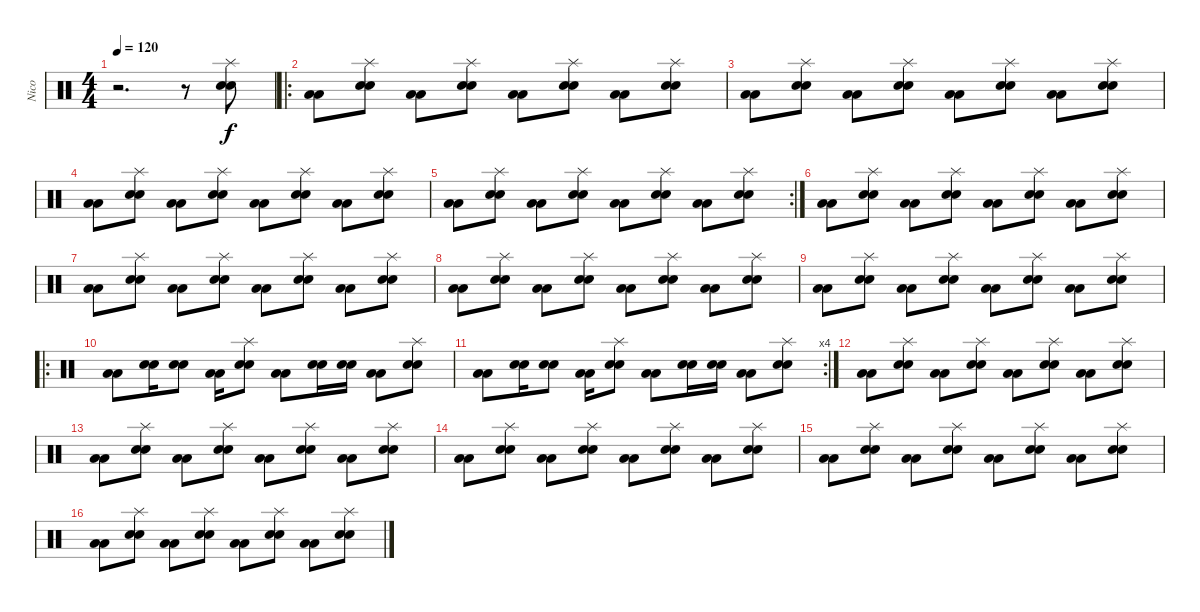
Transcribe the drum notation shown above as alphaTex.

\track ("Nico" "Nico") {instrument percussion}
\staff {score}
\articulation defaults
\ts (4 4)
\tempo 120
\clef neutral
\ks c
r.2{d dy f} r.8 ("Splash (hit)" "Snare (hit) 2" "Snare (hit) 2").8 |
\ro
("Low Floor Tom (hit)" "Low Floor Tom (hit)").8 ("Splash (hit)" "Snare (hit) 2" "Snare (hit) 2").8 ("Low Floor Tom (hit)" "Low Floor Tom (hit)").8 ("Splash (hit)" "Snare (hit) 2" "Snare (hit) 2").8 ("Low Floor Tom (hit)" "Low Floor Tom (hit)").8 ("Splash (hit)" "Snare (hit) 2" "Snare (hit) 2").8 ("Low Floor Tom (hit)" "Low Floor Tom (hit)").8 ("Splash (hit)" "Snare (hit) 2" "Snare (hit) 2").8 |
("Low Floor Tom (hit)" "Low Floor Tom (hit)").8 ("Splash (hit)" "Snare (hit) 2" "Snare (hit) 2").8 ("Low Floor Tom (hit)" "Low Floor Tom (hit)").8 ("Splash (hit)" "Snare (hit) 2" "Snare (hit) 2").8 ("Low Floor Tom (hit)" "Low Floor Tom (hit)").8 ("Splash (hit)" "Snare (hit) 2" "Snare (hit) 2").8 ("Low Floor Tom (hit)" "Low Floor Tom (hit)").8 ("Splash (hit)" "Snare (hit) 2" "Snare (hit) 2").8 |
("Low Floor Tom (hit)" "Low Floor Tom (hit)").8 ("Splash (hit)" "Snare (hit) 2" "Snare (hit) 2").8 ("Low Floor Tom (hit)" "Low Floor Tom (hit)").8 ("Splash (hit)" "Snare (hit) 2" "Snare (hit) 2").8 ("Low Floor Tom (hit)" "Low Floor Tom (hit)").8 ("Splash (hit)" "Snare (hit) 2" "Snare (hit) 2").8 ("Low Floor Tom (hit)" "Low Floor Tom (hit)").8 ("Splash (hit)" "Snare (hit) 2" "Snare (hit) 2").8 |
\rc 2
("Low Floor Tom (hit)" "Low Floor Tom (hit)").8 ("Splash (hit)" "Snare (hit) 2" "Snare (hit) 2").8 ("Low Floor Tom (hit)" "Low Floor Tom (hit)").8 ("Splash (hit)" "Snare (hit) 2" "Snare (hit) 2").8 ("Low Floor Tom (hit)" "Low Floor Tom (hit)").8 ("Splash (hit)" "Snare (hit) 2" "Snare (hit) 2").8 ("Low Floor Tom (hit)" "Low Floor Tom (hit)").8 ("Splash (hit)" "Snare (hit) 2" "Snare (hit) 2").8 |
("Low Floor Tom (hit)" "Low Floor Tom (hit)").8 ("Splash (hit)" "Snare (hit) 2" "Snare (hit) 2").8 ("Low Floor Tom (hit)" "Low Floor Tom (hit)").8 ("Splash (hit)" "Snare (hit) 2" "Snare (hit) 2").8 ("Low Floor Tom (hit)" "Low Floor Tom (hit)").8 ("Splash (hit)" "Snare (hit) 2" "Snare (hit) 2").8 ("Low Floor Tom (hit)" "Low Floor Tom (hit)").8 ("Splash (hit)" "Snare (hit) 2" "Snare (hit) 2").8 |
("Low Floor Tom (hit)" "Low Floor Tom (hit)").8 ("Splash (hit)" "Snare (hit) 2" "Snare (hit) 2").8 ("Low Floor Tom (hit)" "Low Floor Tom (hit)").8 ("Splash (hit)" "Snare (hit) 2" "Snare (hit) 2").8 ("Low Floor Tom (hit)" "Low Floor Tom (hit)").8 ("Splash (hit)" "Snare (hit) 2" "Snare (hit) 2").8 ("Low Floor Tom (hit)" "Low Floor Tom (hit)").8 ("Splash (hit)" "Snare (hit) 2" "Snare (hit) 2").8 |
("Low Floor Tom (hit)" "Low Floor Tom (hit)").8 ("Splash (hit)" "Snare (hit) 2" "Snare (hit) 2").8 ("Low Floor Tom (hit)" "Low Floor Tom (hit)").8 ("Splash (hit)" "Snare (hit) 2" "Snare (hit) 2").8 ("Low Floor Tom (hit)" "Low Floor Tom (hit)").8 ("Splash (hit)" "Snare (hit) 2" "Snare (hit) 2").8 ("Low Floor Tom (hit)" "Low Floor Tom (hit)").8 ("Splash (hit)" "Snare (hit) 2" "Snare (hit) 2").8 |
("Low Floor Tom (hit)" "Low Floor Tom (hit)").8 ("Splash (hit)" "Snare (hit) 2" "Snare (hit) 2").8 ("Low Floor Tom (hit)" "Low Floor Tom (hit)").8 ("Splash (hit)" "Snare (hit) 2" "Snare (hit) 2").8 ("Low Floor Tom (hit)" "Low Floor Tom (hit)").8 ("Splash (hit)" "Snare (hit) 2" "Snare (hit) 2").8 ("Low Floor Tom (hit)" "Low Floor Tom (hit)").8 ("Splash (hit)" "Snare (hit) 2" "Snare (hit) 2").8 |
\ro
("Low Floor Tom (hit)" "Low Floor Tom (hit)").8 ("Snare (hit) 2" "Snare (hit) 2").16 ("Snare (hit) 2" "Snare (hit) 2").8 ("Low Floor Tom (hit)" "Low Floor Tom (hit)").16 ("Splash (hit)" "Snare (hit) 2" "Snare (hit) 2").8 ("Low Floor Tom (hit)" "Low Floor Tom (hit)").8 ("Snare (hit) 2" "Snare (hit) 2").16 ("Snare (hit) 2" "Snare (hit) 2").16 ("Low Floor Tom (hit)" "Low Floor Tom (hit)").8 ("Splash (hit)" "Snare (hit) 2" "Snare (hit) 2").8 |
\rc 4
("Low Floor Tom (hit)" "Low Floor Tom (hit)").8 ("Snare (hit) 2" "Snare (hit) 2").16 ("Snare (hit) 2" "Snare (hit) 2").8 ("Low Floor Tom (hit)" "Low Floor Tom (hit)").16 ("Splash (hit)" "Snare (hit) 2" "Snare (hit) 2").8 ("Low Floor Tom (hit)" "Low Floor Tom (hit)").8 ("Snare (hit) 2" "Snare (hit) 2").16 ("Snare (hit) 2" "Snare (hit) 2").16 ("Low Floor Tom (hit)" "Low Floor Tom (hit)").8 ("Splash (hit)" "Snare (hit) 2" "Snare (hit) 2").8 |
("Low Floor Tom (hit)" "Low Floor Tom (hit)").8 ("Splash (hit)" "Snare (hit) 2" "Snare (hit) 2").8 ("Low Floor Tom (hit)" "Low Floor Tom (hit)").8 ("Splash (hit)" "Snare (hit) 2" "Snare (hit) 2").8 ("Low Floor Tom (hit)" "Low Floor Tom (hit)").8 ("Splash (hit)" "Snare (hit) 2" "Snare (hit) 2").8 ("Low Floor Tom (hit)" "Low Floor Tom (hit)").8 ("Splash (hit)" "Snare (hit) 2" "Snare (hit) 2").8 |
("Low Floor Tom (hit)" "Low Floor Tom (hit)").8 ("Splash (hit)" "Snare (hit) 2" "Snare (hit) 2").8 ("Low Floor Tom (hit)" "Low Floor Tom (hit)").8 ("Splash (hit)" "Snare (hit) 2" "Snare (hit) 2").8 ("Low Floor Tom (hit)" "Low Floor Tom (hit)").8 ("Splash (hit)" "Snare (hit) 2" "Snare (hit) 2").8 ("Low Floor Tom (hit)" "Low Floor Tom (hit)").8 ("Splash (hit)" "Snare (hit) 2" "Snare (hit) 2").8 |
("Low Floor Tom (hit)" "Low Floor Tom (hit)").8 ("Splash (hit)" "Snare (hit) 2" "Snare (hit) 2").8 ("Low Floor Tom (hit)" "Low Floor Tom (hit)").8 ("Splash (hit)" "Snare (hit) 2" "Snare (hit) 2").8 ("Low Floor Tom (hit)" "Low Floor Tom (hit)").8 ("Splash (hit)" "Snare (hit) 2" "Snare (hit) 2").8 ("Low Floor Tom (hit)" "Low Floor Tom (hit)").8 ("Splash (hit)" "Snare (hit) 2" "Snare (hit) 2").8 |
("Low Floor Tom (hit)" "Low Floor Tom (hit)").8 ("Splash (hit)" "Snare (hit) 2" "Snare (hit) 2").8 ("Low Floor Tom (hit)" "Low Floor Tom (hit)").8 ("Splash (hit)" "Snare (hit) 2" "Snare (hit) 2").8 ("Low Floor Tom (hit)" "Low Floor Tom (hit)").8 ("Splash (hit)" "Snare (hit) 2" "Snare (hit) 2").8 ("Low Floor Tom (hit)" "Low Floor Tom (hit)").8 ("Splash (hit)" "Snare (hit) 2" "Snare (hit) 2").8 |
("Low Floor Tom (hit)" "Low Floor Tom (hit)").8 ("Splash (hit)" "Snare (hit) 2" "Snare (hit) 2").8 ("Low Floor Tom (hit)" "Low Floor Tom (hit)").8 ("Splash (hit)" "Snare (hit) 2" "Snare (hit) 2").8 ("Low Floor Tom (hit)" "Low Floor Tom (hit)").8 ("Splash (hit)" "Snare (hit) 2" "Snare (hit) 2").8 ("Low Floor Tom (hit)" "Low Floor Tom (hit)").8 ("Splash (hit)" "Snare (hit) 2" "Snare (hit) 2").8
